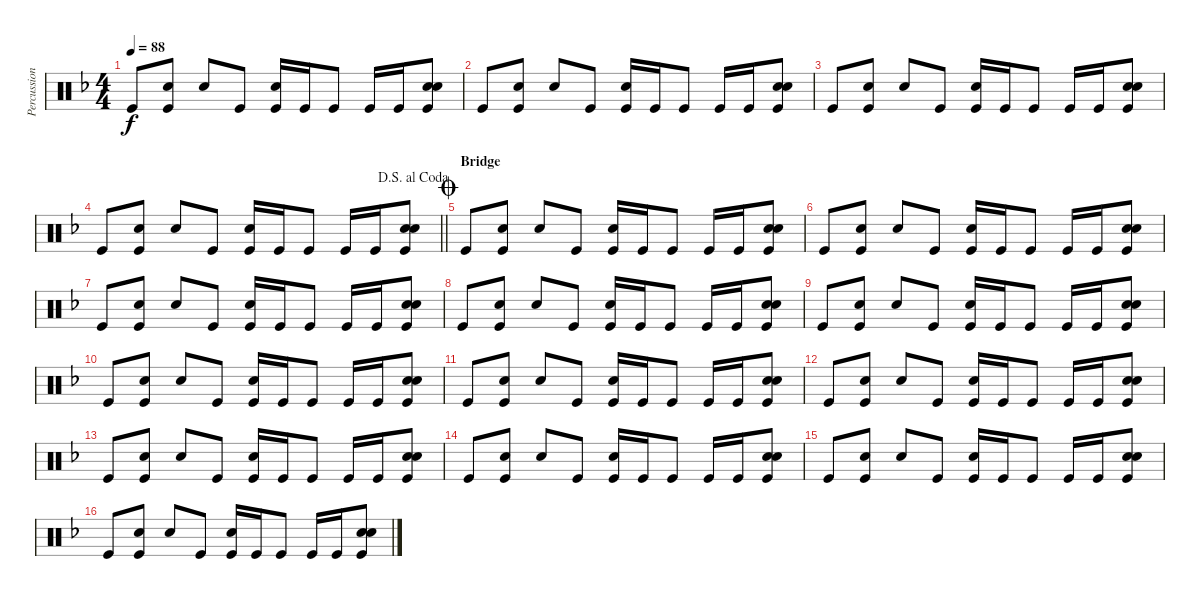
\track ("Percussion" "Percussion") {instrument percussion}
\staff {score}
\articulation defaults
\ts (4 4)
\tempo 88
\clef neutral
\ks f "Kick (hit)".8{dy f}
("Snare (hit)" "Kick (hit)").8 "Electric Snare (hit)".8 "Kick (hit)".8 ("Snare (hit)" "Kick (hit)").16 "Kick (hit)".16 "Kick (hit)".8 "Kick (hit)".16 "Kick (hit)".16 ("Snare (hit)" "Electric Snare (hit)" "Kick (hit)").8 |
"Kick (hit)".8 ("Snare (hit)" "Kick (hit)").8 "Electric Snare (hit)".8 "Kick (hit)".8 ("Snare (hit)" "Kick (hit)").16 "Kick (hit)".16 "Kick (hit)".8 "Kick (hit)".16 "Kick (hit)".16 ("Snare (hit)" "Electric Snare (hit)" "Kick (hit)").8 |
"Kick (hit)".8 ("Snare (hit)" "Kick (hit)").8 "Electric Snare (hit)".8 "Kick (hit)".8 ("Snare (hit)" "Kick (hit)").16 "Kick (hit)".16 "Kick (hit)".8 "Kick (hit)".16 "Kick (hit)".16 ("Snare (hit)" "Electric Snare (hit)" "Kick (hit)").8 |
\jump dalsegnoalcoda
\barLineRight lightlight "Kick (hit)".8
("Snare (hit)" "Kick (hit)").8 "Electric Snare (hit)".8 "Kick (hit)".8 ("Snare (hit)" "Kick (hit)").16 "Kick (hit)".16 "Kick (hit)".8 "Kick (hit)".16 "Kick (hit)".16 ("Snare (hit)" "Electric Snare (hit)" "Kick (hit)").8 |
\section ("" "Bridge")
\jump coda "Kick (hit)".8
("Snare (hit)" "Kick (hit)").8 "Electric Snare (hit)".8 "Kick (hit)".8 ("Snare (hit)" "Kick (hit)").16 "Kick (hit)".16 "Kick (hit)".8 "Kick (hit)".16 "Kick (hit)".16 ("Snare (hit)" "Electric Snare (hit)" "Kick (hit)").8 |
"Kick (hit)".8 ("Snare (hit)" "Kick (hit)").8 "Electric Snare (hit)".8 "Kick (hit)".8 ("Snare (hit)" "Kick (hit)").16 "Kick (hit)".16 "Kick (hit)".8 "Kick (hit)".16 "Kick (hit)".16 ("Snare (hit)" "Electric Snare (hit)" "Kick (hit)").8 |
"Kick (hit)".8 ("Snare (hit)" "Kick (hit)").8 "Electric Snare (hit)".8 "Kick (hit)".8 ("Snare (hit)" "Kick (hit)").16 "Kick (hit)".16 "Kick (hit)".8 "Kick (hit)".16 "Kick (hit)".16 ("Snare (hit)" "Electric Snare (hit)" "Kick (hit)").8 |
"Kick (hit)".8 ("Snare (hit)" "Kick (hit)").8 "Electric Snare (hit)".8 "Kick (hit)".8 ("Snare (hit)" "Kick (hit)").16 "Kick (hit)".16 "Kick (hit)".8 "Kick (hit)".16 "Kick (hit)".16 ("Snare (hit)" "Electric Snare (hit)" "Kick (hit)").8 |
"Kick (hit)".8 ("Snare (hit)" "Kick (hit)").8 "Electric Snare (hit)".8 "Kick (hit)".8 ("Snare (hit)" "Kick (hit)").16 "Kick (hit)".16 "Kick (hit)".8 "Kick (hit)".16 "Kick (hit)".16 ("Snare (hit)" "Electric Snare (hit)" "Kick (hit)").8 |
"Kick (hit)".8 ("Snare (hit)" "Kick (hit)").8 "Electric Snare (hit)".8 "Kick (hit)".8 ("Snare (hit)" "Kick (hit)").16 "Kick (hit)".16 "Kick (hit)".8 "Kick (hit)".16 "Kick (hit)".16 ("Snare (hit)" "Electric Snare (hit)" "Kick (hit)").8 |
"Kick (hit)".8 ("Snare (hit)" "Kick (hit)").8 "Electric Snare (hit)".8 "Kick (hit)".8 ("Snare (hit)" "Kick (hit)").16 "Kick (hit)".16 "Kick (hit)".8 "Kick (hit)".16 "Kick (hit)".16 ("Snare (hit)" "Electric Snare (hit)" "Kick (hit)").8 |
"Kick (hit)".8 ("Snare (hit)" "Kick (hit)").8 "Electric Snare (hit)".8 "Kick (hit)".8 ("Snare (hit)" "Kick (hit)").16 "Kick (hit)".16 "Kick (hit)".8 "Kick (hit)".16 "Kick (hit)".16 ("Snare (hit)" "Electric Snare (hit)" "Kick (hit)").8 |
"Kick (hit)".8 ("Snare (hit)" "Kick (hit)").8 "Electric Snare (hit)".8 "Kick (hit)".8 ("Snare (hit)" "Kick (hit)").16 "Kick (hit)".16 "Kick (hit)".8 "Kick (hit)".16 "Kick (hit)".16 ("Snare (hit)" "Electric Snare (hit)" "Kick (hit)").8 |
"Kick (hit)".8 ("Snare (hit)" "Kick (hit)").8 "Electric Snare (hit)".8 "Kick (hit)".8 ("Snare (hit)" "Kick (hit)").16 "Kick (hit)".16 "Kick (hit)".8 "Kick (hit)".16 "Kick (hit)".16 ("Snare (hit)" "Electric Snare (hit)" "Kick (hit)").8 |
"Kick (hit)".8 ("Snare (hit)" "Kick (hit)").8 "Electric Snare (hit)".8 "Kick (hit)".8 ("Snare (hit)" "Kick (hit)").16 "Kick (hit)".16 "Kick (hit)".8 "Kick (hit)".16 "Kick (hit)".16 ("Snare (hit)" "Electric Snare (hit)" "Kick (hit)").8 |
"Kick (hit)".8 ("Snare (hit)" "Kick (hit)").8 "Electric Snare (hit)".8 "Kick (hit)".8 ("Snare (hit)" "Kick (hit)").16 "Kick (hit)".16 "Kick (hit)".8 "Kick (hit)".16 "Kick (hit)".16 ("Snare (hit)" "Electric Snare (hit)" "Kick (hit)").8
